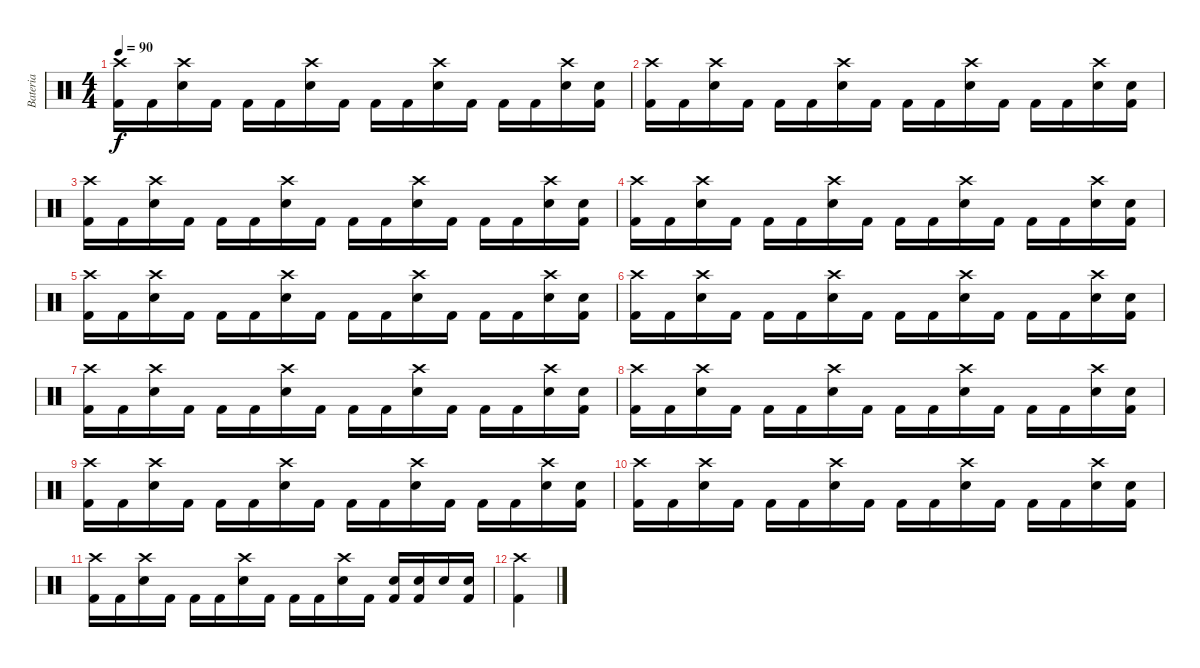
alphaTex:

\track ("Bateria" "Bateria") {instrument percussion}
\staff {score}
\articulation defaults
\ts (4 4)
\tempo 90
\clef neutral
\ks c
("Kick (hit) 2" "Crash high (hit)").16{dy f} "Kick (hit) 2".16 ("Electric Snare (hit)" "Crash high (hit)").16 "Kick (hit) 2".16 "Kick (hit) 2".16 "Kick (hit) 2".16 ("Electric Snare (hit)" "Crash high (hit)").16 "Kick (hit) 2".16 "Kick (hit) 2".16 "Kick (hit) 2".16 ("Electric Snare (hit)" "Crash high (hit)").16 "Kick (hit) 2".16 "Kick (hit) 2".16 "Kick (hit) 2".16 ("Electric Snare (hit)" "Crash high (hit)").16 ("Kick (hit) 2" "Electric Snare (hit)").16 |
("Kick (hit) 2" "Crash high (hit)").16 "Kick (hit) 2".16 ("Electric Snare (hit)" "Crash high (hit)").16 "Kick (hit) 2".16 "Kick (hit) 2".16 "Kick (hit) 2".16 ("Electric Snare (hit)" "Crash high (hit)").16 "Kick (hit) 2".16 "Kick (hit) 2".16 "Kick (hit) 2".16 ("Electric Snare (hit)" "Crash high (hit)").16 "Kick (hit) 2".16 "Kick (hit) 2".16 "Kick (hit) 2".16 ("Electric Snare (hit)" "Crash high (hit)").16 ("Kick (hit) 2" "Electric Snare (hit)").16 |
("Kick (hit) 2" "Crash high (hit)").16 "Kick (hit) 2".16 ("Electric Snare (hit)" "Crash high (hit)").16 "Kick (hit) 2".16 "Kick (hit) 2".16 "Kick (hit) 2".16 ("Electric Snare (hit)" "Crash high (hit)").16 "Kick (hit) 2".16 "Kick (hit) 2".16 "Kick (hit) 2".16 ("Electric Snare (hit)" "Crash high (hit)").16 "Kick (hit) 2".16 "Kick (hit) 2".16 "Kick (hit) 2".16 ("Electric Snare (hit)" "Crash high (hit)").16 ("Kick (hit) 2" "Electric Snare (hit)").16 |
("Kick (hit) 2" "Crash high (hit)").16 "Kick (hit) 2".16 ("Electric Snare (hit)" "Crash high (hit)").16 "Kick (hit) 2".16 "Kick (hit) 2".16 "Kick (hit) 2".16 ("Electric Snare (hit)" "Crash high (hit)").16 "Kick (hit) 2".16 "Kick (hit) 2".16 "Kick (hit) 2".16 ("Electric Snare (hit)" "Crash high (hit)").16 "Kick (hit) 2".16 "Kick (hit) 2".16 "Kick (hit) 2".16 ("Electric Snare (hit)" "Crash high (hit)").16 ("Kick (hit) 2" "Electric Snare (hit)").16 |
("Kick (hit) 2" "Crash high (hit)").16 "Kick (hit) 2".16 ("Electric Snare (hit)" "Crash high (hit)").16 "Kick (hit) 2".16 "Kick (hit) 2".16 "Kick (hit) 2".16 ("Electric Snare (hit)" "Crash high (hit)").16 "Kick (hit) 2".16 "Kick (hit) 2".16 "Kick (hit) 2".16 ("Electric Snare (hit)" "Crash high (hit)").16 "Kick (hit) 2".16 "Kick (hit) 2".16 "Kick (hit) 2".16 ("Electric Snare (hit)" "Crash high (hit)").16 ("Kick (hit) 2" "Electric Snare (hit)").16 |
("Kick (hit) 2" "Crash high (hit)").16 "Kick (hit) 2".16 ("Electric Snare (hit)" "Crash high (hit)").16 "Kick (hit) 2".16 "Kick (hit) 2".16 "Kick (hit) 2".16 ("Electric Snare (hit)" "Crash high (hit)").16 "Kick (hit) 2".16 "Kick (hit) 2".16 "Kick (hit) 2".16 ("Electric Snare (hit)" "Crash high (hit)").16 "Kick (hit) 2".16 "Kick (hit) 2".16 "Kick (hit) 2".16 ("Electric Snare (hit)" "Crash high (hit)").16 ("Kick (hit) 2" "Electric Snare (hit)").16 |
("Kick (hit) 2" "Crash high (hit)").16 "Kick (hit) 2".16 ("Electric Snare (hit)" "Crash high (hit)").16 "Kick (hit) 2".16 "Kick (hit) 2".16 "Kick (hit) 2".16 ("Electric Snare (hit)" "Crash high (hit)").16 "Kick (hit) 2".16 "Kick (hit) 2".16 "Kick (hit) 2".16 ("Electric Snare (hit)" "Crash high (hit)").16 "Kick (hit) 2".16 "Kick (hit) 2".16 "Kick (hit) 2".16 ("Electric Snare (hit)" "Crash high (hit)").16 ("Kick (hit) 2" "Electric Snare (hit)").16 |
("Kick (hit) 2" "Crash high (hit)").16 "Kick (hit) 2".16 ("Electric Snare (hit)" "Crash high (hit)").16 "Kick (hit) 2".16 "Kick (hit) 2".16 "Kick (hit) 2".16 ("Electric Snare (hit)" "Crash high (hit)").16 "Kick (hit) 2".16 "Kick (hit) 2".16 "Kick (hit) 2".16 ("Electric Snare (hit)" "Crash high (hit)").16 "Kick (hit) 2".16 "Kick (hit) 2".16 "Kick (hit) 2".16 ("Electric Snare (hit)" "Crash high (hit)").16 ("Kick (hit) 2" "Electric Snare (hit)").16 |
("Kick (hit) 2" "Crash high (hit)").16 "Kick (hit) 2".16 ("Electric Snare (hit)" "Crash high (hit)").16 "Kick (hit) 2".16 "Kick (hit) 2".16 "Kick (hit) 2".16 ("Electric Snare (hit)" "Crash high (hit)").16 "Kick (hit) 2".16 "Kick (hit) 2".16 "Kick (hit) 2".16 ("Electric Snare (hit)" "Crash high (hit)").16 "Kick (hit) 2".16 "Kick (hit) 2".16 "Kick (hit) 2".16 ("Electric Snare (hit)" "Crash high (hit)").16 ("Kick (hit) 2" "Electric Snare (hit)").16 |
("Kick (hit) 2" "Crash high (hit)").16 "Kick (hit) 2".16 ("Electric Snare (hit)" "Crash high (hit)").16 "Kick (hit) 2".16 "Kick (hit) 2".16 "Kick (hit) 2".16 ("Electric Snare (hit)" "Crash high (hit)").16 "Kick (hit) 2".16 "Kick (hit) 2".16 "Kick (hit) 2".16 ("Electric Snare (hit)" "Crash high (hit)").16 "Kick (hit) 2".16 "Kick (hit) 2".16 "Kick (hit) 2".16 ("Electric Snare (hit)" "Crash high (hit)").16 ("Kick (hit) 2" "Electric Snare (hit)").16 |
("Kick (hit) 2" "Crash high (hit)").16 "Kick (hit) 2".16 ("Electric Snare (hit)" "Crash high (hit)").16 "Kick (hit) 2".16 "Kick (hit) 2".16 "Kick (hit) 2".16 ("Electric Snare (hit)" "Crash high (hit)").16 "Kick (hit) 2".16 "Kick (hit) 2".16 "Kick (hit) 2".16 ("Electric Snare (hit)" "Crash high (hit)").16 "Kick (hit) 2".16 ("Kick (hit) 2" "Electric Snare (hit)").16 ("Kick (hit) 2" "Electric Snare (hit)").16 "Electric Snare (hit)".16 ("Kick (hit) 2" "Electric Snare (hit)").16 |
("Crash high (hit)" "Kick (hit) 2").4
